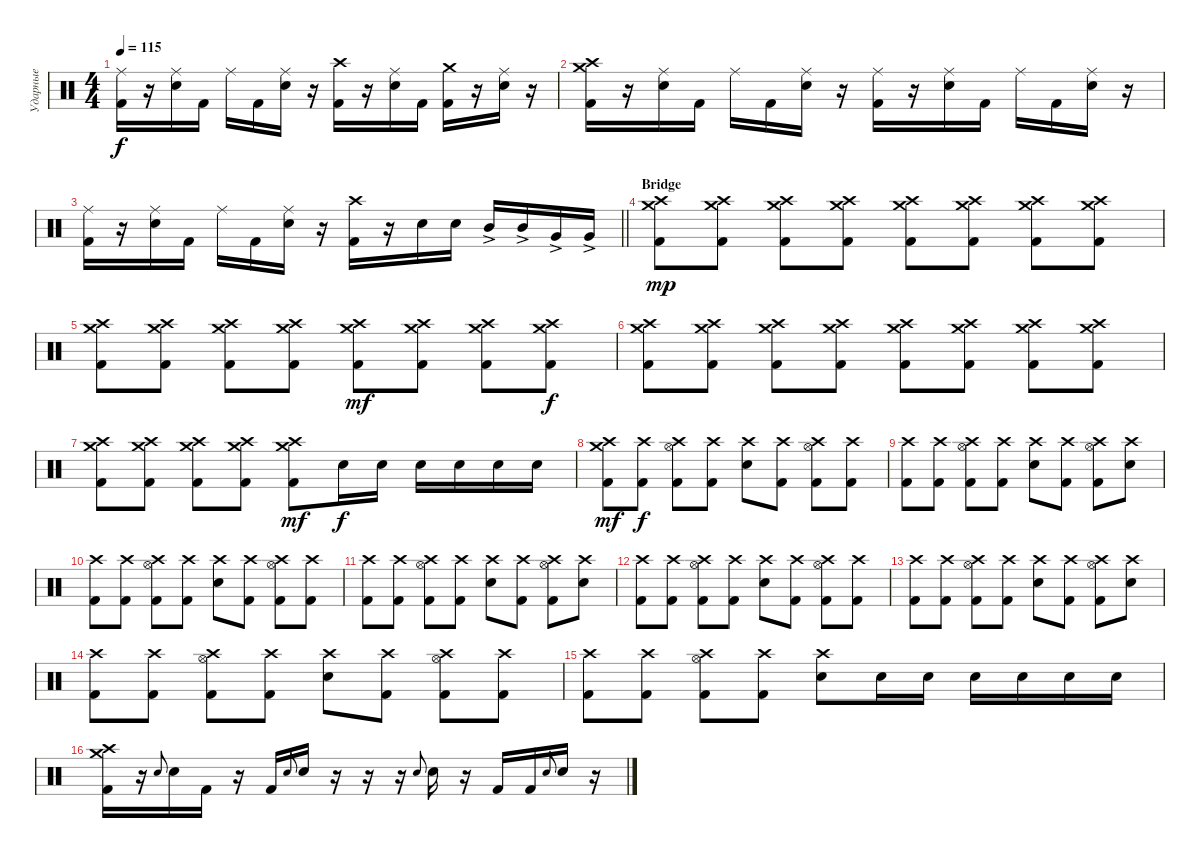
\track ("Ударные" "Ударные") {instrument percussion}
\staff {score}
\articulation defaults
\ts (4 4)
\tempo 115
\clef neutral
\ks c
("Ride (middle)" "Kick (hit) 2").16{dy f} r.16 ("Ride (middle)" "Snare (hit) 2").16 "Kick (hit) 2".16 "Ride (middle)".16 "Kick (hit) 2".16 ("Ride (middle)" "Snare (hit) 2").16 r.16 ("Crash high (hit)" "Kick (hit) 2").16 r.16 ("Ride (middle)" "Snare (hit) 2").16 "Kick (hit) 2".16 ("Crash medium (hit)" "Kick (hit) 2").16 r.16 ("Ride (middle)" "Snare (hit) 2").16 r.16 |
("Crash high (hit)" "Crash medium (hit)" "Kick (hit) 2").16 r.16 ("Ride (middle)" "Snare (hit) 2").16 "Kick (hit) 2".16 "Ride (middle)".16 "Kick (hit) 2".16 ("Ride (middle)" "Snare (hit) 2").16 r.16 ("Ride (middle)" "Kick (hit) 2").16 r.16 ("Ride (middle)" "Snare (hit) 2").16 "Kick (hit) 2".16 "Ride (middle)".16 "Kick (hit) 2".16 ("Ride (middle)" "Snare (hit) 2").16 r.16 |
\barLineRight lightlight
("Ride (middle)" "Kick (hit) 2").16 r.16 ("Ride (middle)" "Snare (hit) 2").16 "Kick (hit) 2".16 "Ride (middle)".16 "Kick (hit) 2".16 ("Ride (middle)" "Snare (hit) 2").16 r.16 ("Crash high (hit)" "Kick (hit) 2").16 r.16 "Snare (hit) 2".16 "Snare (hit) 2".16 "Mid Tom (hit)"{ac}.16 "Mid Tom (hit)"{ac}.16 "Very Low Tom (hit)"{ac}.16 "Very Low Tom (hit)"{ac}.16 |
\section ("" "Bridge")
("Crash high (hit)" "Crash medium (hit)" "Kick (hit) 2").8{dy mp} ("Crash high (hit)" "Crash medium (hit)" "Kick (hit) 2").8 ("Crash high (hit)" "Crash medium (hit)" "Kick (hit) 2").8 ("Crash high (hit)" "Crash medium (hit)" "Kick (hit) 2").8 ("Crash high (hit)" "Crash medium (hit)" "Kick (hit) 2").8 ("Crash high (hit)" "Crash medium (hit)" "Kick (hit) 2").8 ("Crash high (hit)" "Crash medium (hit)" "Kick (hit) 2").8 ("Crash high (hit)" "Crash medium (hit)" "Kick (hit) 2").8 |
("Crash high (hit)" "Crash medium (hit)" "Kick (hit) 2").8 ("Crash high (hit)" "Crash medium (hit)" "Kick (hit) 2").8 ("Crash high (hit)" "Crash medium (hit)" "Kick (hit) 2").8 ("Crash high (hit)" "Crash medium (hit)" "Kick (hit) 2").8 ("Crash high (hit)" "Crash medium (hit)" "Kick (hit) 2").8{dy mf} ("Crash high (hit)" "Crash medium (hit)" "Kick (hit) 2").8 ("Crash high (hit)" "Crash medium (hit)" "Kick (hit) 2").8 ("Crash high (hit)" "Crash medium (hit)" "Kick (hit) 2").8{dy f} |
("Crash high (hit)" "Crash medium (hit)" "Kick (hit) 2").8 ("Crash high (hit)" "Crash medium (hit)" "Kick (hit) 2").8 ("Crash high (hit)" "Crash medium (hit)" "Kick (hit) 2").8 ("Crash high (hit)" "Crash medium (hit)" "Kick (hit) 2").8 ("Crash high (hit)" "Crash medium (hit)" "Kick (hit) 2").8 ("Crash high (hit)" "Crash medium (hit)" "Kick (hit) 2").8 ("Crash high (hit)" "Crash medium (hit)" "Kick (hit) 2").8 ("Crash high (hit)" "Crash medium (hit)" "Kick (hit) 2").8 |
("Crash high (hit)" "Crash medium (hit)" "Kick (hit) 2").8 ("Crash high (hit)" "Crash medium (hit)" "Kick (hit) 2").8 ("Crash high (hit)" "Crash medium (hit)" "Kick (hit) 2").8 ("Crash high (hit)" "Crash medium (hit)" "Kick (hit) 2").8 ("Crash high (hit)" "Crash medium (hit)" "Kick (hit) 2").8{dy mf} "Snare (hit) 2".16{dy f} "Snare (hit) 2".16 "Snare (hit) 2".16 "Snare (hit) 2".16 "Snare (hit) 2".16 "Snare (hit) 2".16 |
("Crash medium (hit)" "Crash high (hit)" "Kick (hit) 2").8{dy mf} ("Crash high (hit)" "Kick (hit) 2").8{dy f} ("Crash high (hit)" "Hi-Hat (open)" "Kick (hit) 2").8 ("Crash high (hit)" "Kick (hit) 2").8 ("Crash high (hit)" "Snare (hit) 2").8 ("Crash high (hit)" "Kick (hit) 2").8 ("Crash high (hit)" "Hi-Hat (open)" "Kick (hit) 2").8 ("Crash high (hit)" "Kick (hit) 2").8 |
("Crash high (hit)" "Kick (hit) 2").8 ("Crash high (hit)" "Kick (hit) 2").8 ("Crash high (hit)" "Hi-Hat (open)" "Kick (hit) 2").8 ("Crash high (hit)" "Kick (hit) 2").8 ("Crash high (hit)" "Snare (hit) 2").8 ("Crash high (hit)" "Kick (hit) 2").8 ("Crash high (hit)" "Hi-Hat (open)" "Kick (hit) 2").8 ("Crash high (hit)" "Snare (hit) 2").8 |
("Crash high (hit)" "Kick (hit) 2").8 ("Crash high (hit)" "Kick (hit) 2").8 ("Crash high (hit)" "Hi-Hat (open)" "Kick (hit) 2").8 ("Crash high (hit)" "Kick (hit) 2").8 ("Crash high (hit)" "Snare (hit) 2").8 ("Crash high (hit)" "Kick (hit) 2").8 ("Crash high (hit)" "Hi-Hat (open)" "Kick (hit) 2").8 ("Crash high (hit)" "Kick (hit) 2").8 |
("Crash high (hit)" "Kick (hit) 2").8 ("Crash high (hit)" "Kick (hit) 2").8 ("Crash high (hit)" "Hi-Hat (open)" "Kick (hit) 2").8 ("Crash high (hit)" "Kick (hit) 2").8 ("Crash high (hit)" "Snare (hit) 2").8 ("Crash high (hit)" "Kick (hit) 2").8 ("Crash high (hit)" "Hi-Hat (open)" "Kick (hit) 2").8 ("Crash high (hit)" "Snare (hit) 2").8 |
("Crash high (hit)" "Kick (hit) 2").8 ("Crash high (hit)" "Kick (hit) 2").8 ("Crash high (hit)" "Hi-Hat (open)" "Kick (hit) 2").8 ("Crash high (hit)" "Kick (hit) 2").8 ("Crash high (hit)" "Snare (hit) 2").8 ("Crash high (hit)" "Kick (hit) 2").8 ("Crash high (hit)" "Hi-Hat (open)" "Kick (hit) 2").8 ("Crash high (hit)" "Kick (hit) 2").8 |
("Crash high (hit)" "Kick (hit) 2").8 ("Crash high (hit)" "Kick (hit) 2").8 ("Crash high (hit)" "Hi-Hat (open)" "Kick (hit) 2").8 ("Crash high (hit)" "Kick (hit) 2").8 ("Crash high (hit)" "Snare (hit) 2").8 ("Crash high (hit)" "Kick (hit) 2").8 ("Crash high (hit)" "Hi-Hat (open)" "Kick (hit) 2").8 ("Crash high (hit)" "Snare (hit) 2").8 |
("Crash high (hit)" "Kick (hit) 2").8 ("Crash high (hit)" "Kick (hit) 2").8 ("Crash high (hit)" "Hi-Hat (open)" "Kick (hit) 2").8 ("Crash high (hit)" "Kick (hit) 2").8 ("Crash high (hit)" "Snare (hit) 2").8 ("Crash high (hit)" "Kick (hit) 2").8 ("Crash high (hit)" "Hi-Hat (open)" "Kick (hit) 2").8 ("Crash high (hit)" "Kick (hit) 2").8 |
("Crash high (hit)" "Kick (hit) 2").8 ("Crash high (hit)" "Kick (hit) 2").8 ("Crash high (hit)" "Hi-Hat (open)" "Kick (hit) 2").8 ("Crash high (hit)" "Kick (hit) 2").8 ("Crash high (hit)" "Snare (hit) 2").8 "Snare (hit) 2".16 "Snare (hit) 2".16 "Snare (hit) 2".16 "Snare (hit) 2".16 "Snare (hit) 2".16 "Snare (hit) 2".16 |
("Crash medium (hit)" "Crash high (hit)" "Kick (hit) 2").16 r.16 "Snare (hit) 2".8{gr onbeat} "Snare (hit) 2".16 "Kick (hit) 2".16 r.16 "Kick (hit) 2".16 "Snare (hit) 2".8{gr onbeat} "Snare (hit) 2".16 r.16 r.16 r.16 "Snare (hit) 2".8{gr onbeat} "Snare (hit) 2".16 r.16 "Kick (hit) 2".16 "Kick (hit) 2".16 "Snare (hit) 2".8{gr onbeat} "Snare (hit) 2".16 r.16
